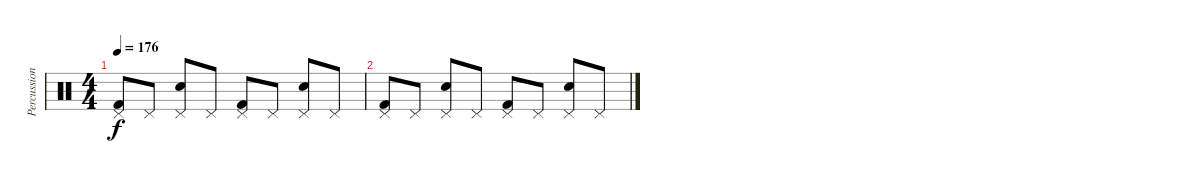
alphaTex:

\track ("Percussions" "Percussion") {instrument percussion}
\staff {score}
\articulation defaults
\ts (4 4)
\tempo 176
\clef neutral
\ks c
("Pedal Hi-Hat (hit)" "Kick (hit) 2").8{dy f} "Pedal Hi-Hat (hit)".8 ("Pedal Hi-Hat (hit)" "Electric Snare (hit)").8 "Pedal Hi-Hat (hit)".8 ("Pedal Hi-Hat (hit)" "Kick (hit) 2").8 "Pedal Hi-Hat (hit)".8 ("Pedal Hi-Hat (hit)" "Electric Snare (hit)").8 "Pedal Hi-Hat (hit)".8 |
("Pedal Hi-Hat (hit)" "Kick (hit) 2").8 "Pedal Hi-Hat (hit)".8 ("Pedal Hi-Hat (hit)" "Electric Snare (hit)").8 "Pedal Hi-Hat (hit)".8 ("Pedal Hi-Hat (hit)" "Kick (hit) 2").8 "Pedal Hi-Hat (hit)".8 ("Pedal Hi-Hat (hit)" "Electric Snare (hit)").8 "Pedal Hi-Hat (hit)".8
